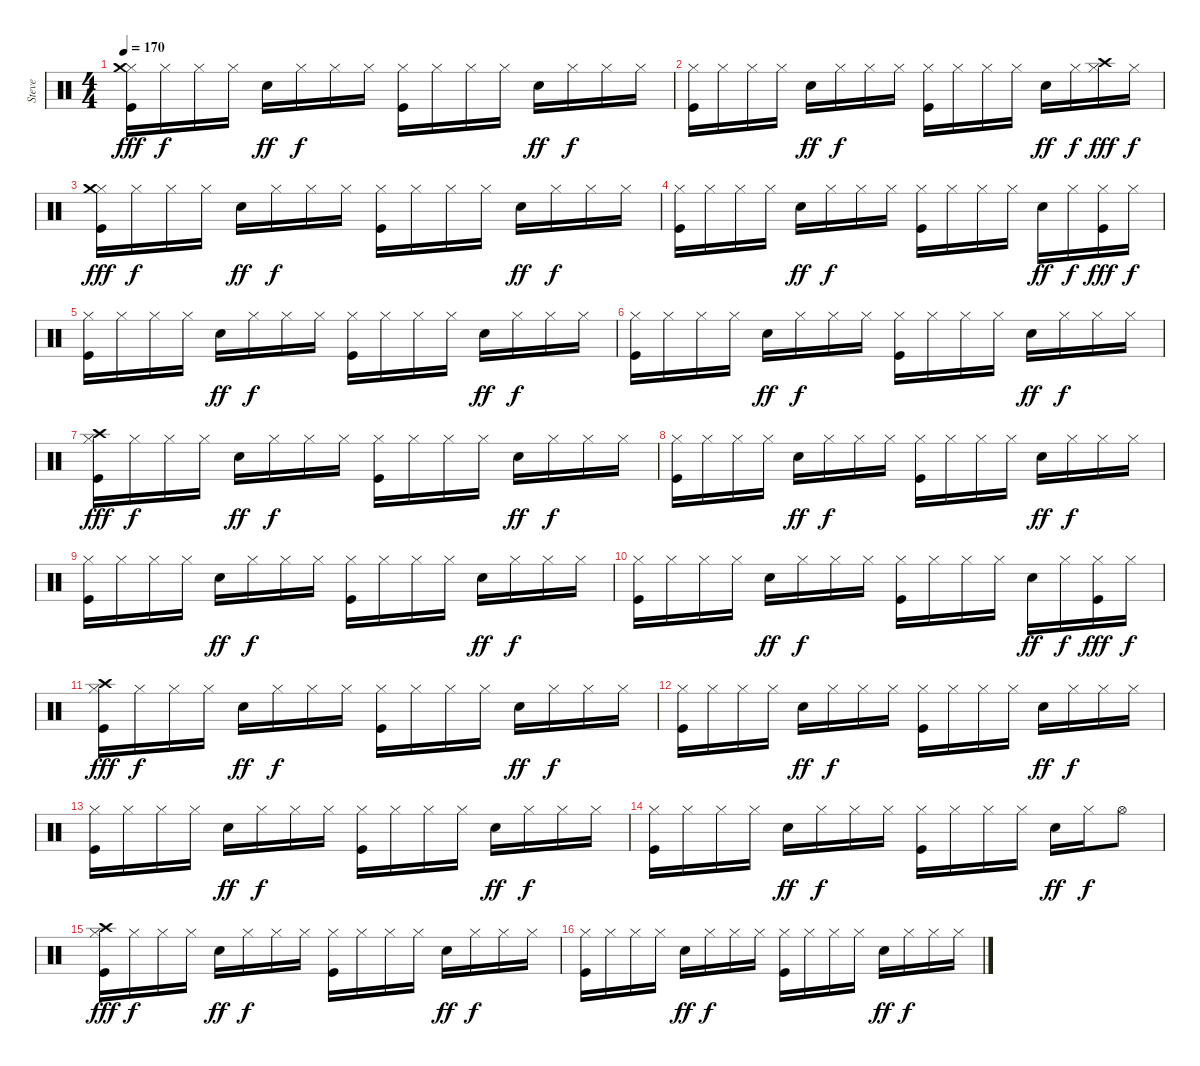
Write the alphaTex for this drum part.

\track ("Steve" "Steve") {instrument percussion}
\staff {score}
\articulation defaults
\ts (4 4)
\tempo 170
\clef neutral
\ks c
("Hi-Hat (closed)" "Crash medium (hit)" "Kick (hit)").16{dy fff} "Hi-Hat (closed)".16{dy f} "Hi-Hat (closed)".16 "Hi-Hat (closed)".16 "Electric Snare (hit)".16{dy ff} "Hi-Hat (closed)".16{dy f} "Hi-Hat (closed)".16 "Hi-Hat (closed)".16 ("Hi-Hat (closed)" "Kick (hit)").16 "Hi-Hat (closed)".16 "Hi-Hat (closed)".16 "Hi-Hat (closed)".16 "Electric Snare (hit)".16{dy ff} "Hi-Hat (closed)".16{dy f} "Hi-Hat (closed)".16 "Hi-Hat (closed)".16 |
("Hi-Hat (closed)" "Kick (hit)").16 "Hi-Hat (closed)".16 "Hi-Hat (closed)".16 "Hi-Hat (closed)".16 "Electric Snare (hit)".16{dy ff} "Hi-Hat (closed)".16{dy f} "Hi-Hat (closed)".16 "Hi-Hat (closed)".16 ("Hi-Hat (closed)" "Kick (hit)").16 "Hi-Hat (closed)".16 "Hi-Hat (closed)".16 "Hi-Hat (closed)".16 "Electric Snare (hit)".16{dy ff} "Hi-Hat (closed)".16{dy f} ("Hi-Hat (closed)" "Crash high (hit)").16{dy fff} "Hi-Hat (closed)".16{dy f} |
("Hi-Hat (closed)" "Crash medium (hit)" "Kick (hit)").16{dy fff} "Hi-Hat (closed)".16{dy f} "Hi-Hat (closed)".16 "Hi-Hat (closed)".16 "Electric Snare (hit)".16{dy ff} "Hi-Hat (closed)".16{dy f} "Hi-Hat (closed)".16 "Hi-Hat (closed)".16 ("Hi-Hat (closed)" "Kick (hit)").16 "Hi-Hat (closed)".16 "Hi-Hat (closed)".16 "Hi-Hat (closed)".16 "Electric Snare (hit)".16{dy ff} "Hi-Hat (closed)".16{dy f} "Hi-Hat (closed)".16 "Hi-Hat (closed)".16 |
("Hi-Hat (closed)" "Kick (hit)").16 "Hi-Hat (closed)".16 "Hi-Hat (closed)".16 "Hi-Hat (closed)".16 "Electric Snare (hit)".16{dy ff} "Hi-Hat (closed)".16{dy f} "Hi-Hat (closed)".16 "Hi-Hat (closed)".16 ("Hi-Hat (closed)" "Kick (hit)").16 "Hi-Hat (closed)".16 "Hi-Hat (closed)".16 "Hi-Hat (closed)".16 "Electric Snare (hit)".16{dy ff} "Hi-Hat (closed)".16{dy f} ("Hi-Hat (closed)" "Kick (hit)").16{dy fff} "Hi-Hat (closed)".16{dy f} |
("Hi-Hat (closed)" "Kick (hit)").16 "Hi-Hat (closed)".16 "Hi-Hat (closed)".16 "Hi-Hat (closed)".16 "Electric Snare (hit)".16{dy ff} "Hi-Hat (closed)".16{dy f} "Hi-Hat (closed)".16 "Hi-Hat (closed)".16 ("Hi-Hat (closed)" "Kick (hit)").16 "Hi-Hat (closed)".16 "Hi-Hat (closed)".16 "Hi-Hat (closed)".16 "Electric Snare (hit)".16{dy ff} "Hi-Hat (closed)".16{dy f} "Hi-Hat (closed)".16 "Hi-Hat (closed)".16 |
("Hi-Hat (closed)" "Kick (hit)").16 "Hi-Hat (closed)".16 "Hi-Hat (closed)".16 "Hi-Hat (closed)".16 "Electric Snare (hit)".16{dy ff} "Hi-Hat (closed)".16{dy f} "Hi-Hat (closed)".16 "Hi-Hat (closed)".16 ("Hi-Hat (closed)" "Kick (hit)").16 "Hi-Hat (closed)".16 "Hi-Hat (closed)".16 "Hi-Hat (closed)".16 "Electric Snare (hit)".16{dy ff} "Hi-Hat (closed)".16{dy f} "Hi-Hat (closed)".16 "Hi-Hat (closed)".16 |
("Hi-Hat (closed)" "Crash high (hit)" "Kick (hit)").16{dy fff} "Hi-Hat (closed)".16{dy f} "Hi-Hat (closed)".16 "Hi-Hat (closed)".16 "Electric Snare (hit)".16{dy ff} "Hi-Hat (closed)".16{dy f} "Hi-Hat (closed)".16 "Hi-Hat (closed)".16 ("Hi-Hat (closed)" "Kick (hit)").16 "Hi-Hat (closed)".16 "Hi-Hat (closed)".16 "Hi-Hat (closed)".16 "Electric Snare (hit)".16{dy ff} "Hi-Hat (closed)".16{dy f} "Hi-Hat (closed)".16 "Hi-Hat (closed)".16 |
("Hi-Hat (closed)" "Kick (hit)").16 "Hi-Hat (closed)".16 "Hi-Hat (closed)".16 "Hi-Hat (closed)".16 "Electric Snare (hit)".16{dy ff} "Hi-Hat (closed)".16{dy f} "Hi-Hat (closed)".16 "Hi-Hat (closed)".16 ("Hi-Hat (closed)" "Kick (hit)").16 "Hi-Hat (closed)".16 "Hi-Hat (closed)".16 "Hi-Hat (closed)".16 "Electric Snare (hit)".16{dy ff} "Hi-Hat (closed)".16{dy f} "Hi-Hat (closed)".16 "Hi-Hat (closed)".16 |
("Hi-Hat (closed)" "Kick (hit)").16 "Hi-Hat (closed)".16 "Hi-Hat (closed)".16 "Hi-Hat (closed)".16 "Electric Snare (hit)".16{dy ff} "Hi-Hat (closed)".16{dy f} "Hi-Hat (closed)".16 "Hi-Hat (closed)".16 ("Hi-Hat (closed)" "Kick (hit)").16 "Hi-Hat (closed)".16 "Hi-Hat (closed)".16 "Hi-Hat (closed)".16 "Electric Snare (hit)".16{dy ff} "Hi-Hat (closed)".16{dy f} "Hi-Hat (closed)".16 "Hi-Hat (closed)".16 |
("Hi-Hat (closed)" "Kick (hit)").16 "Hi-Hat (closed)".16 "Hi-Hat (closed)".16 "Hi-Hat (closed)".16 "Electric Snare (hit)".16{dy ff} "Hi-Hat (closed)".16{dy f} "Hi-Hat (closed)".16 "Hi-Hat (closed)".16 ("Hi-Hat (closed)" "Kick (hit)").16 "Hi-Hat (closed)".16 "Hi-Hat (closed)".16 "Hi-Hat (closed)".16 "Electric Snare (hit)".16{dy ff} "Hi-Hat (closed)".16{dy f} ("Hi-Hat (closed)" "Kick (hit)").16{dy fff} "Hi-Hat (closed)".16{dy f} |
("Hi-Hat (closed)" "Crash high (hit)" "Kick (hit)").16{dy fff} "Hi-Hat (closed)".16{dy f} "Hi-Hat (closed)".16 "Hi-Hat (closed)".16 "Electric Snare (hit)".16{dy ff} "Hi-Hat (closed)".16{dy f} "Hi-Hat (closed)".16 "Hi-Hat (closed)".16 ("Hi-Hat (closed)" "Kick (hit)").16 "Hi-Hat (closed)".16 "Hi-Hat (closed)".16 "Hi-Hat (closed)".16 "Electric Snare (hit)".16{dy ff} "Hi-Hat (closed)".16{dy f} "Hi-Hat (closed)".16 "Hi-Hat (closed)".16 |
("Hi-Hat (closed)" "Kick (hit)").16 "Hi-Hat (closed)".16 "Hi-Hat (closed)".16 "Hi-Hat (closed)".16 "Electric Snare (hit)".16{dy ff} "Hi-Hat (closed)".16{dy f} "Hi-Hat (closed)".16 "Hi-Hat (closed)".16 ("Hi-Hat (closed)" "Kick (hit)").16 "Hi-Hat (closed)".16 "Hi-Hat (closed)".16 "Hi-Hat (closed)".16 "Electric Snare (hit)".16{dy ff} "Hi-Hat (closed)".16{dy f} "Hi-Hat (closed)".16 "Hi-Hat (closed)".16 |
("Hi-Hat (closed)" "Kick (hit)").16 "Hi-Hat (closed)".16 "Hi-Hat (closed)".16 "Hi-Hat (closed)".16 "Electric Snare (hit)".16{dy ff} "Hi-Hat (closed)".16{dy f} "Hi-Hat (closed)".16 "Hi-Hat (closed)".16 ("Hi-Hat (closed)" "Kick (hit)").16 "Hi-Hat (closed)".16 "Hi-Hat (closed)".16 "Hi-Hat (closed)".16 "Electric Snare (hit)".16{dy ff} "Hi-Hat (closed)".16{dy f} "Hi-Hat (closed)".16 "Hi-Hat (closed)".16 |
("Hi-Hat (closed)" "Kick (hit)").16 "Hi-Hat (closed)".16 "Hi-Hat (closed)".16 "Hi-Hat (closed)".16 "Electric Snare (hit)".16{dy ff} "Hi-Hat (closed)".16{dy f} "Hi-Hat (closed)".16 "Hi-Hat (closed)".16 ("Hi-Hat (closed)" "Kick (hit)").16 "Hi-Hat (closed)".16 "Hi-Hat (closed)".16 "Hi-Hat (closed)".16 "Electric Snare (hit)".16{dy ff} "Hi-Hat (closed)".16{dy f} "Hi-Hat (open)".8 |
("Hi-Hat (closed)" "Crash high (hit)" "Kick (hit)").16{dy fff} "Hi-Hat (closed)".16{dy f} "Hi-Hat (closed)".16 "Hi-Hat (closed)".16 "Electric Snare (hit)".16{dy ff} "Hi-Hat (closed)".16{dy f} "Hi-Hat (closed)".16 "Hi-Hat (closed)".16 ("Hi-Hat (closed)" "Kick (hit)").16 "Hi-Hat (closed)".16 "Hi-Hat (closed)".16 "Hi-Hat (closed)".16 "Electric Snare (hit)".16{dy ff} "Hi-Hat (closed)".16{dy f} "Hi-Hat (closed)".16 "Hi-Hat (closed)".16 |
("Hi-Hat (closed)" "Kick (hit)").16 "Hi-Hat (closed)".16 "Hi-Hat (closed)".16 "Hi-Hat (closed)".16 "Electric Snare (hit)".16{dy ff} "Hi-Hat (closed)".16{dy f} "Hi-Hat (closed)".16 "Hi-Hat (closed)".16 ("Hi-Hat (closed)" "Kick (hit)").16 "Hi-Hat (closed)".16 "Hi-Hat (closed)".16 "Hi-Hat (closed)".16 "Electric Snare (hit)".16{dy ff} "Hi-Hat (closed)".16{dy f} "Hi-Hat (closed)".16 "Hi-Hat (closed)".16
